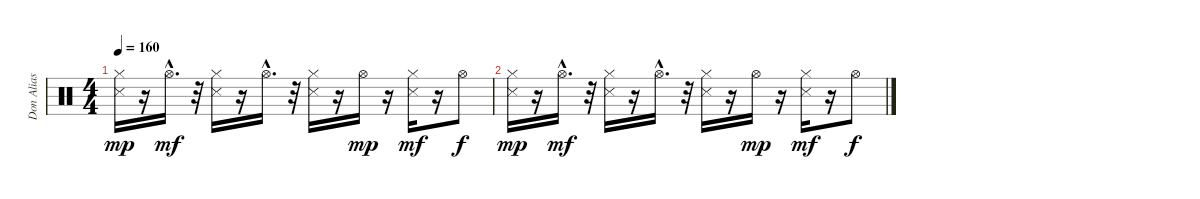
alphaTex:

\track ("Don Alias" "Don Alias") {instrument percussion}
\staff {score}
\articulation defaults
\ts (4 4)
\tempo 160
\clef neutral
\ks c
("Snare (side stick) 3" "Hi-Hat (closed)").16{dy mp} r.16 "Hi-Hat (open)"{hac}.16{d dy mf} r.32 ("Snare (side stick) 3" "Hi-Hat (closed)").16 r.16 "Hi-Hat (open)"{hac}.16{d} r.32 ("Snare (side stick) 3" "Hi-Hat (closed)").16 r.16 "Hi-Hat (open)".16{dy mp} r.16 ("Snare (side stick) 3" "Hi-Hat (closed)").16{dy mf} r.16 "Hi-Hat (open)".8{dy f} |
("Snare (side stick) 3" "Hi-Hat (closed)").16{dy mp} r.16 "Hi-Hat (open)"{hac}.16{d dy mf} r.32 ("Snare (side stick) 3" "Hi-Hat (closed)").16 r.16 "Hi-Hat (open)"{hac}.16{d} r.32 ("Snare (side stick) 3" "Hi-Hat (closed)").16 r.16 "Hi-Hat (open)".16{dy mp} r.16 ("Snare (side stick) 3" "Hi-Hat (closed)").16{dy mf} r.16 "Hi-Hat (open)".8{dy f}
